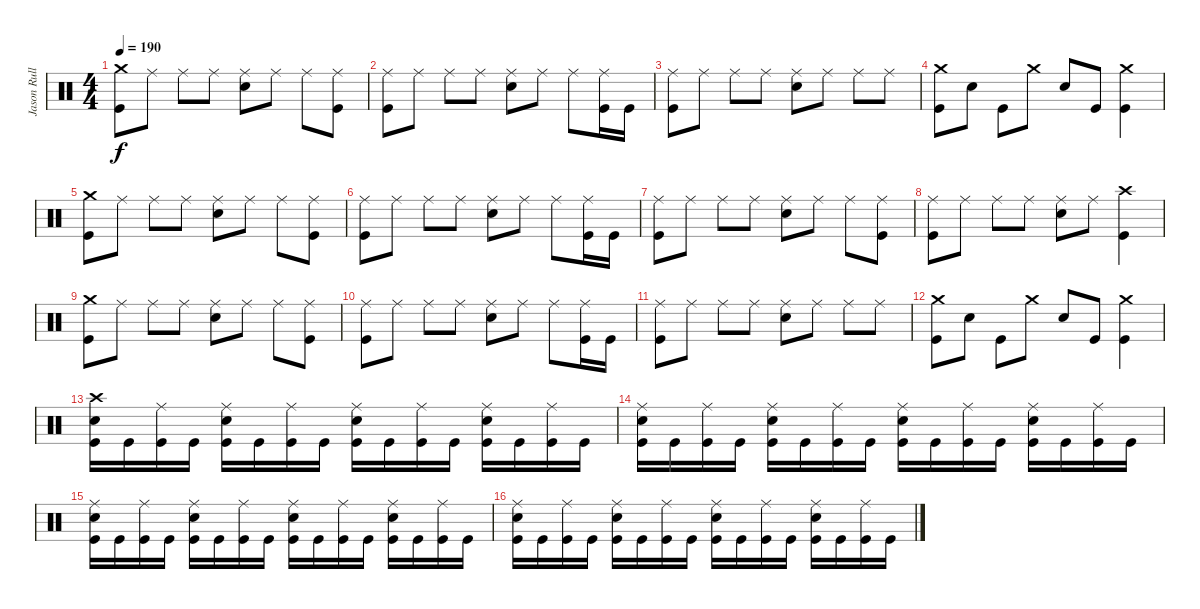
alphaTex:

\track ("Jason Rullo - Drums and Percussion" "Jason Rull") {instrument percussion}
\staff {score}
\articulation defaults
\ts (4 4)
\tempo 190
\clef neutral
\ks c
("Crash medium (hit)" "Kick (hit)").8{dy f} "Ride (middle)".8 "Ride (middle)".8 "Ride (middle)".8 ("Snare (hit) 2" "Ride (middle)").8 "Ride (middle)".8 "Ride (middle)".8 ("Ride (middle)" "Kick (hit)").8 |
("Kick (hit)" "Ride (middle)").8 "Ride (middle)".8 "Ride (middle)".8 "Ride (middle)".8 ("Snare (hit) 2" "Ride (middle)").8 "Ride (middle)".8 "Ride (middle)".8 ("Kick (hit)" "Ride (middle)").16 "Kick (hit)".16 |
("Ride (middle)" "Kick (hit)").8 "Ride (middle)".8 "Ride (middle)".8 "Ride (middle)".8 ("Snare (hit) 2" "Ride (middle)").8 "Ride (middle)".8 "Ride (middle)".8 "Ride (middle)".8 |
("Crash medium (hit)" "Kick (hit)").8 "Snare (hit) 2".8 "Kick (hit)".8 "Crash medium (hit)".8 "Snare (hit) 2".8 "Kick (hit)".8 ("Crash medium (hit)" "Kick (hit)").4 |
("Crash medium (hit)" "Kick (hit)").8 "Ride (middle)".8 "Ride (middle)".8 "Ride (middle)".8 ("Snare (hit) 2" "Ride (middle)").8 "Ride (middle)".8 "Ride (middle)".8 ("Ride (middle)" "Kick (hit)").8 |
("Kick (hit)" "Ride (middle)").8 "Ride (middle)".8 "Ride (middle)".8 "Ride (middle)".8 ("Snare (hit) 2" "Ride (middle)").8 "Ride (middle)".8 "Ride (middle)".8 ("Kick (hit)" "Ride (middle)").16 "Kick (hit)".16 |
("Ride (middle)" "Kick (hit)").8 "Ride (middle)".8 "Ride (middle)".8 "Ride (middle)".8 ("Snare (hit) 2" "Ride (middle)").8 "Ride (middle)".8 "Ride (middle)".8 ("Ride (middle)" "Kick (hit)").8 |
("Kick (hit)" "Ride (middle)").8 "Ride (middle)".8 "Ride (middle)".8 "Ride (middle)".8 ("Snare (hit) 2" "Ride (middle)").8 "Ride (middle)".8 ("Crash high (hit)" "Kick (hit)").4 |
("Crash medium (hit)" "Kick (hit)").8 "Ride (middle)".8 "Ride (middle)".8 "Ride (middle)".8 ("Snare (hit) 2" "Ride (middle)").8 "Ride (middle)".8 "Ride (middle)".8 ("Ride (middle)" "Kick (hit)").8 |
("Kick (hit)" "Ride (middle)").8 "Ride (middle)".8 "Ride (middle)".8 "Ride (middle)".8 ("Snare (hit) 2" "Ride (middle)").8 "Ride (middle)".8 "Ride (middle)".8 ("Kick (hit)" "Ride (middle)").16 "Kick (hit)".16 |
("Ride (middle)" "Kick (hit)").8 "Ride (middle)".8 "Ride (middle)".8 "Ride (middle)".8 ("Snare (hit) 2" "Ride (middle)").8 "Ride (middle)".8 "Ride (middle)".8 "Ride (middle)".8 |
("Crash medium (hit)" "Kick (hit)").8 "Snare (hit) 2".8 "Kick (hit)".8 "Crash medium (hit)".8 "Snare (hit) 2".8 "Kick (hit)".8 ("Crash medium (hit)" "Kick (hit)").4 |
("Snare (hit) 2" "Kick (hit)" "Crash high (hit)").16 "Kick (hit)".16 ("Kick (hit)" "Ride (middle)").16 "Kick (hit)".16 ("Snare (hit) 2" "Kick (hit)" "Ride (middle)").16 "Kick (hit)".16 ("Kick (hit)" "Ride (middle)").16 "Kick (hit)".16 ("Snare (hit) 2" "Kick (hit)" "Ride (middle)").16 "Kick (hit)".16 ("Kick (hit)" "Ride (middle)").16 "Kick (hit)".16 ("Snare (hit) 2" "Kick (hit)" "Ride (middle)").16 "Kick (hit)".16 ("Kick (hit)" "Ride (middle)").16 "Kick (hit)".16 |
("Snare (hit) 2" "Kick (hit)" "Ride (middle)").16 "Kick (hit)".16 ("Kick (hit)" "Ride (middle)").16 "Kick (hit)".16 ("Snare (hit) 2" "Kick (hit)" "Ride (middle)").16 "Kick (hit)".16 ("Kick (hit)" "Ride (middle)").16 "Kick (hit)".16 ("Snare (hit) 2" "Kick (hit)" "Ride (middle)").16 "Kick (hit)".16 ("Kick (hit)" "Ride (middle)").16 "Kick (hit)".16 ("Snare (hit) 2" "Kick (hit)" "Ride (middle)").16 "Kick (hit)".16 ("Kick (hit)" "Ride (middle)").16 "Kick (hit)".16 |
("Snare (hit) 2" "Kick (hit)" "Ride (middle)").16 "Kick (hit)".16 ("Kick (hit)" "Ride (middle)").16 "Kick (hit)".16 ("Snare (hit) 2" "Kick (hit)" "Ride (middle)").16 "Kick (hit)".16 ("Kick (hit)" "Ride (middle)").16 "Kick (hit)".16 ("Snare (hit) 2" "Kick (hit)" "Ride (middle)").16 "Kick (hit)".16 ("Kick (hit)" "Ride (middle)").16 "Kick (hit)".16 ("Snare (hit) 2" "Kick (hit)" "Ride (middle)").16 "Kick (hit)".16 ("Kick (hit)" "Ride (middle)").16 "Kick (hit)".16 |
("Snare (hit) 2" "Kick (hit)" "Ride (middle)").16 "Kick (hit)".16 ("Kick (hit)" "Ride (middle)").16 "Kick (hit)".16 ("Snare (hit) 2" "Kick (hit)" "Ride (middle)").16 "Kick (hit)".16 ("Kick (hit)" "Ride (middle)").16 "Kick (hit)".16 ("Snare (hit) 2" "Kick (hit)" "Ride (middle)").16 "Kick (hit)".16 ("Kick (hit)" "Ride (middle)").16 "Kick (hit)".16 ("Snare (hit) 2" "Kick (hit)" "Ride (middle)").16 "Kick (hit)".16 ("Kick (hit)" "Ride (middle)").16 "Kick (hit)".16
